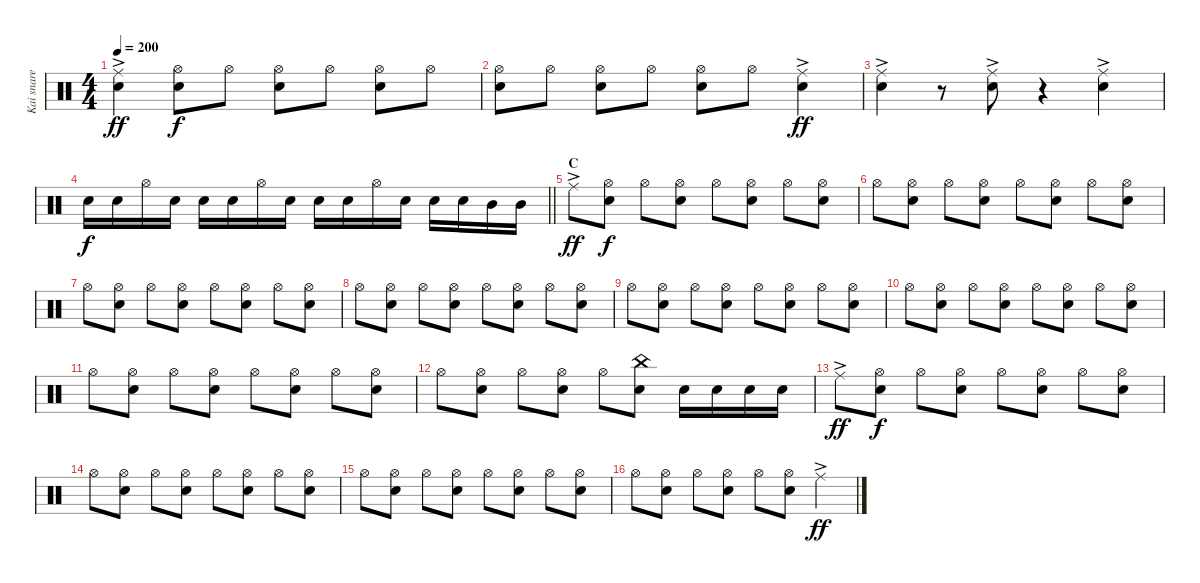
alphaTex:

\track ("Kai snare" "Kai snare") {instrument percussion}
\staff {score}
\articulation defaults
\ts (4 4)
\tempo 200
\clef neutral
\ks c
("Ride (middle)"{ac} "Snare (hit) 2").4{dy ff} ("Hi-Hat (open)" "Snare (hit) 2").8{dy f} "Hi-Hat (open)".8 ("Hi-Hat (open)" "Snare (hit) 2").8 "Hi-Hat (open)".8 ("Hi-Hat (open)" "Snare (hit) 2").8 "Hi-Hat (open)".8 |
("Hi-Hat (open)" "Snare (hit) 2").8 "Hi-Hat (open)".8 ("Hi-Hat (open)" "Snare (hit) 2").8 "Hi-Hat (open)".8 ("Hi-Hat (open)" "Snare (hit) 2").8 "Hi-Hat (open)".8 ("Ride (middle)"{ac} "Snare (hit) 2").4{dy ff} |
("Ride (middle)"{ac} "Snare (hit) 2").4 r.8 ("Ride (middle)"{ac} "Snare (hit) 2").8 r.4 ("Ride (middle)"{ac} "Snare (hit) 2").4 |
\barLineRight lightlight "Snare (hit) 2".16{dy f} "Snare (hit) 2".16 "Hi-Hat (open)".16 "Snare (hit) 2".16 "Snare (hit) 2".16 "Snare (hit) 2".16 "Hi-Hat (open)".16 "Snare (hit) 2".16 "Snare (hit) 2".16 "Snare (hit) 2".16 "Hi-Hat (open)".16 "Snare (hit) 2".16 "Snare (hit) 2".16 "Snare (hit) 2".16 "Mid Tom (hit)".16 "Mid Tom (hit)".16
|
\section ("" "C")
"Ride (middle)"{ac}.8{dy ff} ("Hi-Hat (open)" "Snare (hit) 2").8{dy f} "Hi-Hat (open)".8 ("Hi-Hat (open)" "Snare (hit) 2").8 "Hi-Hat (open)".8 ("Hi-Hat (open)" "Snare (hit) 2").8 "Hi-Hat (open)".8 ("Hi-Hat (open)" "Snare (hit) 2").8 |
"Hi-Hat (open)".8 ("Hi-Hat (open)" "Snare (hit) 2").8 "Hi-Hat (open)".8 ("Hi-Hat (open)" "Snare (hit) 2").8 "Hi-Hat (open)".8 ("Hi-Hat (open)" "Snare (hit) 2").8 "Hi-Hat (open)".8 ("Hi-Hat (open)" "Snare (hit) 2").8 |
"Hi-Hat (open)".8 ("Hi-Hat (open)" "Snare (hit) 2").8 "Hi-Hat (open)".8 ("Hi-Hat (open)" "Snare (hit) 2").8 "Hi-Hat (open)".8 ("Hi-Hat (open)" "Snare (hit) 2").8 "Hi-Hat (open)".8 ("Hi-Hat (open)" "Snare (hit) 2").8 |
"Hi-Hat (open)".8 ("Hi-Hat (open)" "Snare (hit) 2").8 "Hi-Hat (open)".8 ("Hi-Hat (open)" "Snare (hit) 2").8 "Hi-Hat (open)".8 ("Hi-Hat (open)" "Snare (hit) 2").8 "Hi-Hat (open)".8 ("Hi-Hat (open)" "Snare (hit) 2").8 |
"Hi-Hat (open)".8 ("Hi-Hat (open)" "Snare (hit) 2").8 "Hi-Hat (open)".8 ("Hi-Hat (open)" "Snare (hit) 2").8 "Hi-Hat (open)".8 ("Hi-Hat (open)" "Snare (hit) 2").8 "Hi-Hat (open)".8 ("Hi-Hat (open)" "Snare (hit) 2").8 |
"Hi-Hat (open)".8 ("Hi-Hat (open)" "Snare (hit) 2").8 "Hi-Hat (open)".8 ("Hi-Hat (open)" "Snare (hit) 2").8 "Hi-Hat (open)".8 ("Hi-Hat (open)" "Snare (hit) 2").8 "Hi-Hat (open)".8 ("Hi-Hat (open)" "Snare (hit) 2").8 |
"Hi-Hat (open)".8 ("Hi-Hat (open)" "Snare (hit) 2").8 "Hi-Hat (open)".8 ("Hi-Hat (open)" "Snare (hit) 2").8 "Hi-Hat (open)".8 ("Hi-Hat (open)" "Snare (hit) 2").8 "Hi-Hat (open)".8 ("Hi-Hat (open)" "Snare (hit) 2").8 |
"Hi-Hat (open)".8 ("Hi-Hat (open)" "Snare (hit) 2").8 "Hi-Hat (open)".8 ("Hi-Hat (open)" "Snare (hit) 2").8 "Hi-Hat (open)".8 ("China (hit)" "Snare (hit) 2").8 "Snare (hit) 2".16 "Snare (hit) 2".16 "Snare (hit) 2".16 "Snare (hit) 2".16 |
"Ride (middle)"{ac}.8{dy ff} ("Hi-Hat (open)" "Snare (hit) 2").8{dy f} "Hi-Hat (open)".8 ("Hi-Hat (open)" "Snare (hit) 2").8 "Hi-Hat (open)".8 ("Hi-Hat (open)" "Snare (hit) 2").8 "Hi-Hat (open)".8 ("Hi-Hat (open)" "Snare (hit) 2").8 |
"Hi-Hat (open)".8 ("Hi-Hat (open)" "Snare (hit) 2").8 "Hi-Hat (open)".8 ("Hi-Hat (open)" "Snare (hit) 2").8 "Hi-Hat (open)".8 ("Hi-Hat (open)" "Snare (hit) 2").8 "Hi-Hat (open)".8 ("Hi-Hat (open)" "Snare (hit) 2").8 |
"Hi-Hat (open)".8 ("Hi-Hat (open)" "Snare (hit) 2").8 "Hi-Hat (open)".8 ("Hi-Hat (open)" "Snare (hit) 2").8 "Hi-Hat (open)".8 ("Hi-Hat (open)" "Snare (hit) 2").8 "Hi-Hat (open)".8 ("Hi-Hat (open)" "Snare (hit) 2").8 |
"Hi-Hat (open)".8 ("Hi-Hat (open)" "Snare (hit) 2").8 "Hi-Hat (open)".8 ("Hi-Hat (open)" "Snare (hit) 2").8 "Hi-Hat (open)".8 ("Hi-Hat (open)" "Snare (hit) 2").8 "Ride (middle)"{ac}.4{dy ff}
